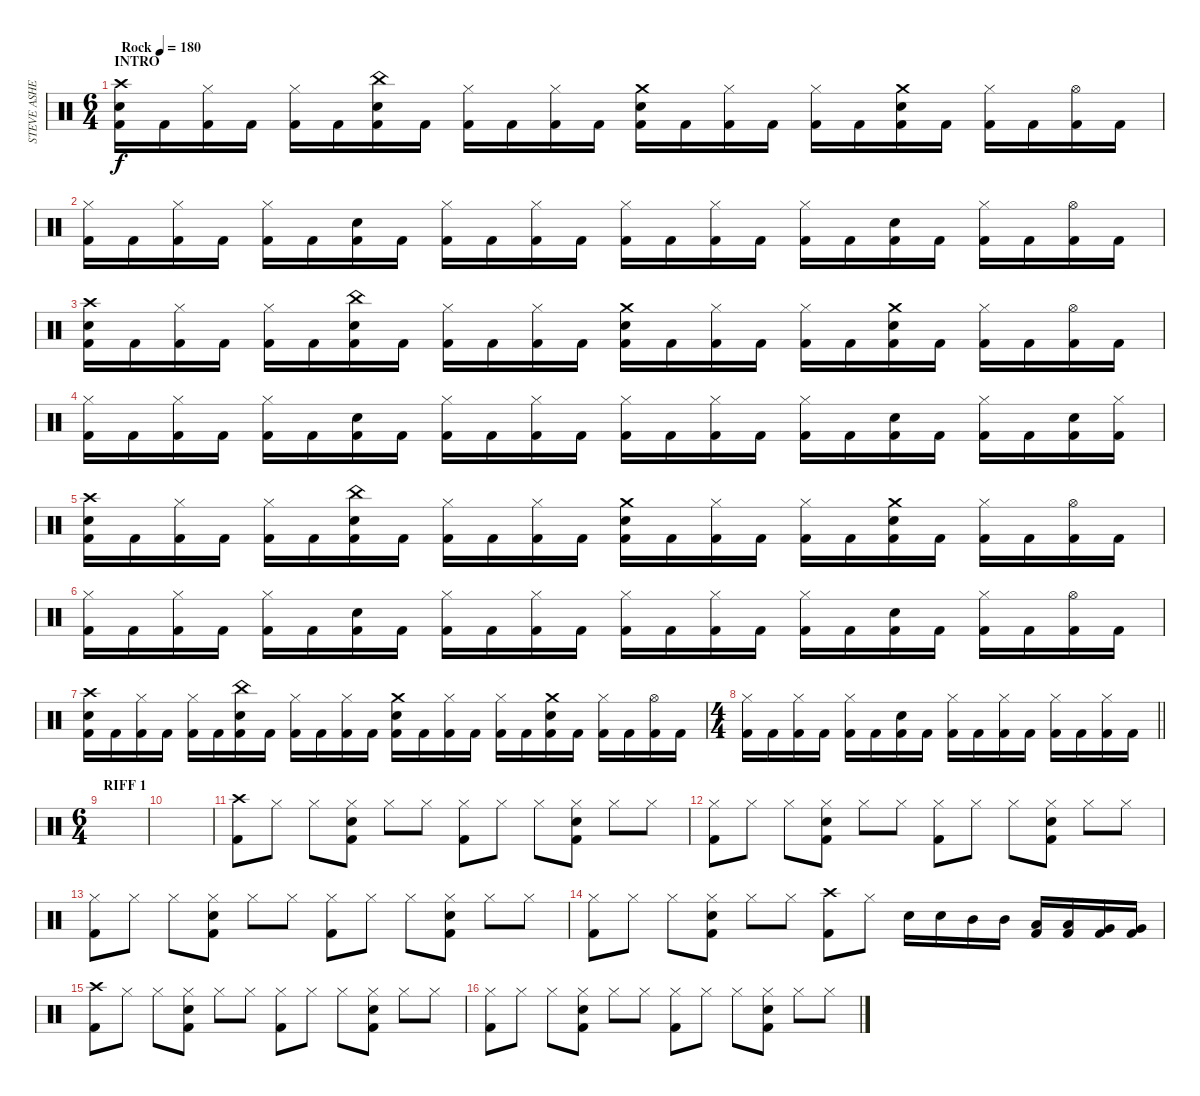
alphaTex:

\track ("STEVE ASHEIM" "STEVE ASHE") {instrument percussion}
\staff {score}
\articulation defaults
\ts (6 4)
\section ("" "INTRO")
\tempo (180 "Rock")
\clef neutral
\ks c
("Snare (hit) 2" "Kick (hit) 2" "Crash high (hit)").16{dy f} "Kick (hit) 2".16 ("Hi-Hat (closed)" "Kick (hit) 2").16 "Kick (hit) 2".16 ("Hi-Hat (closed)" "Kick (hit) 2").16 "Kick (hit) 2".16 ("Snare (hit) 2" "Kick (hit) 2" "China (hit)").16 "Kick (hit) 2".16 ("Hi-Hat (closed)" "Kick (hit) 2").16 "Kick (hit) 2".16 ("Hi-Hat (closed)" "Kick (hit) 2").16 "Kick (hit) 2".16 ("Snare (hit) 2" "Kick (hit) 2" "Crash medium (hit)").16 "Kick (hit) 2".16 ("Hi-Hat (closed)" "Kick (hit) 2").16 "Kick (hit) 2".16 ("Hi-Hat (closed)" "Kick (hit) 2").16 "Kick (hit) 2".16 ("Snare (hit) 2" "Kick (hit) 2" "Crash medium (hit)").16 "Kick (hit) 2".16 ("Hi-Hat (closed)" "Kick (hit) 2").16 "Kick (hit) 2".16 ("Hi-Hat (open)" "Kick (hit) 2").16 "Kick (hit) 2".16 |
("Hi-Hat (closed)" "Kick (hit) 2").16 "Kick (hit) 2".16 ("Hi-Hat (closed)" "Kick (hit) 2").16 "Kick (hit) 2".16 ("Hi-Hat (closed)" "Kick (hit) 2").16 "Kick (hit) 2".16 ("Snare (hit) 2" "Kick (hit) 2").16 "Kick (hit) 2".16 ("Hi-Hat (closed)" "Kick (hit) 2").16 "Kick (hit) 2".16 ("Hi-Hat (closed)" "Kick (hit) 2").16 "Kick (hit) 2".16 ("Hi-Hat (closed)" "Kick (hit) 2").16 "Kick (hit) 2".16 ("Hi-Hat (closed)" "Kick (hit) 2").16 "Kick (hit) 2".16 ("Hi-Hat (closed)" "Kick (hit) 2").16 "Kick (hit) 2".16 ("Snare (hit) 2" "Kick (hit) 2").16 "Kick (hit) 2".16 ("Hi-Hat (closed)" "Kick (hit) 2").16 "Kick (hit) 2".16 ("Hi-Hat (open)" "Kick (hit) 2").16 "Kick (hit) 2".16 |
("Snare (hit) 2" "Kick (hit) 2" "Crash high (hit)").16 "Kick (hit) 2".16 ("Hi-Hat (closed)" "Kick (hit) 2").16 "Kick (hit) 2".16 ("Hi-Hat (closed)" "Kick (hit) 2").16 "Kick (hit) 2".16 ("Snare (hit) 2" "Kick (hit) 2" "China (hit)").16 "Kick (hit) 2".16 ("Hi-Hat (closed)" "Kick (hit) 2").16 "Kick (hit) 2".16 ("Hi-Hat (closed)" "Kick (hit) 2").16 "Kick (hit) 2".16 ("Snare (hit) 2" "Kick (hit) 2" "Crash medium (hit)").16 "Kick (hit) 2".16 ("Hi-Hat (closed)" "Kick (hit) 2").16 "Kick (hit) 2".16 ("Hi-Hat (closed)" "Kick (hit) 2").16 "Kick (hit) 2".16 ("Snare (hit) 2" "Kick (hit) 2" "Crash medium (hit)").16 "Kick (hit) 2".16 ("Hi-Hat (closed)" "Kick (hit) 2").16 "Kick (hit) 2".16 ("Hi-Hat (open)" "Kick (hit) 2").16 "Kick (hit) 2".16 |
("Hi-Hat (closed)" "Kick (hit) 2").16 "Kick (hit) 2".16 ("Hi-Hat (closed)" "Kick (hit) 2").16 "Kick (hit) 2".16 ("Hi-Hat (closed)" "Kick (hit) 2").16 "Kick (hit) 2".16 ("Snare (hit) 2" "Kick (hit) 2").16 "Kick (hit) 2".16 ("Hi-Hat (closed)" "Kick (hit) 2").16 "Kick (hit) 2".16 ("Hi-Hat (closed)" "Kick (hit) 2").16 "Kick (hit) 2".16 ("Hi-Hat (closed)" "Kick (hit) 2").16 "Kick (hit) 2".16 ("Hi-Hat (closed)" "Kick (hit) 2").16 "Kick (hit) 2".16 ("Hi-Hat (closed)" "Kick (hit) 2").16 "Kick (hit) 2".16 ("Snare (hit) 2" "Kick (hit) 2").16 "Kick (hit) 2".16 ("Hi-Hat (closed)" "Kick (hit) 2").16 "Kick (hit) 2".16 ("Snare (hit) 2" "Kick (hit) 2").16 ("Hi-Hat (closed)" "Kick (hit) 2").16 |
("Snare (hit) 2" "Kick (hit) 2" "Crash high (hit)").16 "Kick (hit) 2".16 ("Hi-Hat (closed)" "Kick (hit) 2").16 "Kick (hit) 2".16 ("Hi-Hat (closed)" "Kick (hit) 2").16 "Kick (hit) 2".16 ("Snare (hit) 2" "Kick (hit) 2" "China (hit)").16 "Kick (hit) 2".16 ("Hi-Hat (closed)" "Kick (hit) 2").16 "Kick (hit) 2".16 ("Hi-Hat (closed)" "Kick (hit) 2").16 "Kick (hit) 2".16 ("Snare (hit) 2" "Kick (hit) 2" "Crash medium (hit)").16 "Kick (hit) 2".16 ("Hi-Hat (closed)" "Kick (hit) 2").16 "Kick (hit) 2".16 ("Hi-Hat (closed)" "Kick (hit) 2").16 "Kick (hit) 2".16 ("Snare (hit) 2" "Kick (hit) 2" "Crash medium (hit)").16 "Kick (hit) 2".16 ("Hi-Hat (closed)" "Kick (hit) 2").16 "Kick (hit) 2".16 ("Hi-Hat (open)" "Kick (hit) 2").16 "Kick (hit) 2".16 |
("Hi-Hat (closed)" "Kick (hit) 2").16 "Kick (hit) 2".16 ("Hi-Hat (closed)" "Kick (hit) 2").16 "Kick (hit) 2".16 ("Hi-Hat (closed)" "Kick (hit) 2").16 "Kick (hit) 2".16 ("Snare (hit) 2" "Kick (hit) 2").16 "Kick (hit) 2".16 ("Hi-Hat (closed)" "Kick (hit) 2").16 "Kick (hit) 2".16 ("Hi-Hat (closed)" "Kick (hit) 2").16 "Kick (hit) 2".16 ("Hi-Hat (closed)" "Kick (hit) 2").16 "Kick (hit) 2".16 ("Hi-Hat (closed)" "Kick (hit) 2").16 "Kick (hit) 2".16 ("Hi-Hat (closed)" "Kick (hit) 2").16 "Kick (hit) 2".16 ("Snare (hit) 2" "Kick (hit) 2").16 "Kick (hit) 2".16 ("Hi-Hat (closed)" "Kick (hit) 2").16 "Kick (hit) 2".16 ("Hi-Hat (open)" "Kick (hit) 2").16 "Kick (hit) 2".16 |
("Snare (hit) 2" "Kick (hit) 2" "Crash high (hit)").16 "Kick (hit) 2".16 ("Hi-Hat (closed)" "Kick (hit) 2").16 "Kick (hit) 2".16 ("Hi-Hat (closed)" "Kick (hit) 2").16 "Kick (hit) 2".16 ("Snare (hit) 2" "Kick (hit) 2" "China (hit)").16 "Kick (hit) 2".16 ("Hi-Hat (closed)" "Kick (hit) 2").16 "Kick (hit) 2".16 ("Hi-Hat (closed)" "Kick (hit) 2").16 "Kick (hit) 2".16 ("Snare (hit) 2" "Kick (hit) 2" "Crash medium (hit)").16 "Kick (hit) 2".16 ("Hi-Hat (closed)" "Kick (hit) 2").16 "Kick (hit) 2".16 ("Hi-Hat (closed)" "Kick (hit) 2").16 "Kick (hit) 2".16 ("Snare (hit) 2" "Kick (hit) 2" "Crash medium (hit)").16 "Kick (hit) 2".16 ("Hi-Hat (closed)" "Kick (hit) 2").16 "Kick (hit) 2".16 ("Hi-Hat (open)" "Kick (hit) 2").16 "Kick (hit) 2".16 |
\ts (4 4)
\barLineRight lightlight
("Hi-Hat (closed)" "Kick (hit) 2").16 "Kick (hit) 2".16 ("Hi-Hat (closed)" "Kick (hit) 2").16 "Kick (hit) 2".16 ("Hi-Hat (closed)" "Kick (hit) 2").16 "Kick (hit) 2".16 ("Snare (hit) 2" "Kick (hit) 2").16 "Kick (hit) 2".16 ("Hi-Hat (closed)" "Kick (hit) 2").16 "Kick (hit) 2".16 ("Hi-Hat (closed)" "Kick (hit) 2").16 "Kick (hit) 2".16 ("Hi-Hat (closed)" "Kick (hit) 2").16 "Kick (hit) 2".16 ("Hi-Hat (closed)" "Kick (hit) 2").16 "Kick (hit) 2".16 |
\ts (6 4)
\section ("" "RIFF 1")
|
|
("Crash high (hit)" "Kick (hit) 2").8 "Hi-Hat (closed)".8 "Hi-Hat (closed)".8 ("Hi-Hat (closed)" "Snare (hit) 2" "Kick (hit) 2").8 "Hi-Hat (closed)".8 "Hi-Hat (closed)".8 ("Hi-Hat (closed)" "Kick (hit) 2").8 "Hi-Hat (closed)".8 "Hi-Hat (closed)".8 ("Hi-Hat (closed)" "Snare (hit) 2" "Kick (hit) 2").8 "Hi-Hat (closed)".8 "Hi-Hat (closed)".8 |
("Hi-Hat (closed)" "Kick (hit) 2").8 "Hi-Hat (closed)".8 "Hi-Hat (closed)".8 ("Hi-Hat (closed)" "Snare (hit) 2" "Kick (hit) 2").8 "Hi-Hat (closed)".8 "Hi-Hat (closed)".8 ("Hi-Hat (closed)" "Kick (hit) 2").8 "Hi-Hat (closed)".8 "Hi-Hat (closed)".8 ("Hi-Hat (closed)" "Snare (hit) 2" "Kick (hit) 2").8 "Hi-Hat (closed)".8 "Hi-Hat (closed)".8 |
("Hi-Hat (closed)" "Kick (hit) 2").8 "Hi-Hat (closed)".8 "Hi-Hat (closed)".8 ("Hi-Hat (closed)" "Snare (hit) 2" "Kick (hit) 2").8 "Hi-Hat (closed)".8 "Hi-Hat (closed)".8 ("Hi-Hat (closed)" "Kick (hit) 2").8 "Hi-Hat (closed)".8 "Hi-Hat (closed)".8 ("Hi-Hat (closed)" "Snare (hit) 2" "Kick (hit) 2").8 "Hi-Hat (closed)".8 "Hi-Hat (closed)".8 |
("Hi-Hat (closed)" "Kick (hit) 2").8 "Hi-Hat (closed)".8 "Hi-Hat (closed)".8 ("Hi-Hat (closed)" "Snare (hit) 2" "Kick (hit) 2").8 "Hi-Hat (closed)".8 "Hi-Hat (closed)".8 ("Crash high (hit)" "Kick (hit) 2").8 "Hi-Hat (closed)".8 "Snare (hit) 2".16 "Snare (hit) 2".16 "Mid Tom (hit)".16 "Mid Tom (hit)".16 ("Low Tom (hit)" "Kick (hit) 2").16 ("Low Tom (hit)" "Kick (hit) 2").16 ("Very Low Tom (hit)" "Kick (hit) 2").16 ("Very Low Tom (hit)" "Kick (hit) 2").16 |
("Crash high (hit)" "Kick (hit) 2").8 "Hi-Hat (closed)".8 "Hi-Hat (closed)".8 ("Hi-Hat (closed)" "Snare (hit) 2" "Kick (hit) 2").8 "Hi-Hat (closed)".8 "Hi-Hat (closed)".8 ("Hi-Hat (closed)" "Kick (hit) 2").8 "Hi-Hat (closed)".8 "Hi-Hat (closed)".8 ("Hi-Hat (closed)" "Snare (hit) 2" "Kick (hit) 2").8 "Hi-Hat (closed)".8 "Hi-Hat (closed)".8 |
("Hi-Hat (closed)" "Kick (hit) 2").8 "Hi-Hat (closed)".8 "Hi-Hat (closed)".8 ("Hi-Hat (closed)" "Snare (hit) 2" "Kick (hit) 2").8 "Hi-Hat (closed)".8 "Hi-Hat (closed)".8 ("Hi-Hat (closed)" "Kick (hit) 2").8 "Hi-Hat (closed)".8 "Hi-Hat (closed)".8 ("Hi-Hat (closed)" "Snare (hit) 2" "Kick (hit) 2").8 "Hi-Hat (closed)".8 "Hi-Hat (closed)".8
